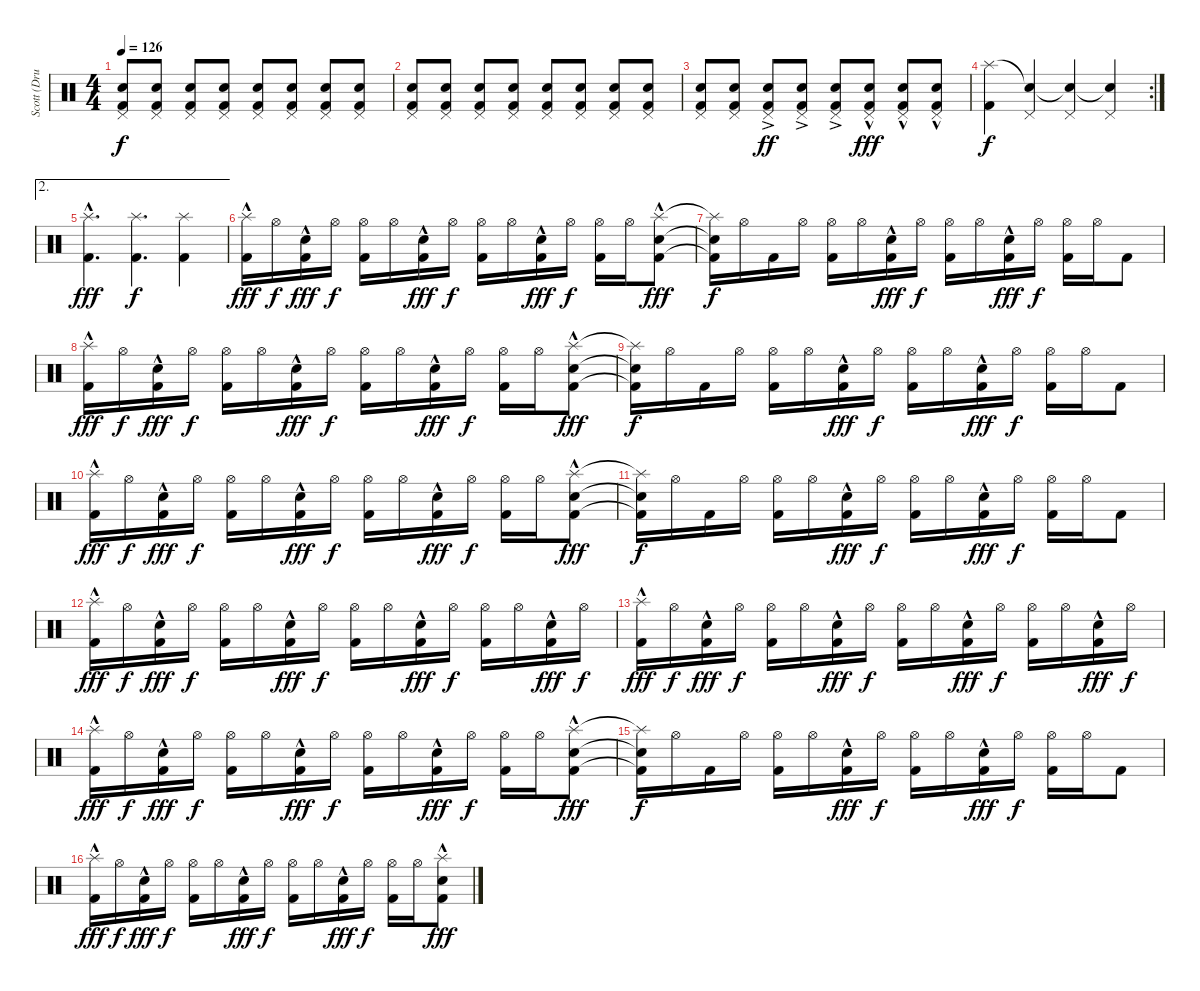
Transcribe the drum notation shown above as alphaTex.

\track ("Scott (Drums)" "Scott (Dru") {instrument percussion}
\staff {score}
\articulation defaults
\ts (4 4)
\tempo 126
\clef neutral
\ks c
("Pedal Hi-Hat (hit)" "Electric Snare (hit)" "Kick (hit) 2").8{dy f volume 11} ("Pedal Hi-Hat (hit)" "Electric Snare (hit)" "Kick (hit) 2").8 ("Pedal Hi-Hat (hit)" "Electric Snare (hit)" "Kick (hit) 2").8{volume 12} ("Pedal Hi-Hat (hit)" "Electric Snare (hit)" "Kick (hit) 2").8 ("Pedal Hi-Hat (hit)" "Electric Snare (hit)" "Kick (hit) 2").8{volume 13} ("Pedal Hi-Hat (hit)" "Electric Snare (hit)" "Kick (hit) 2").8 ("Pedal Hi-Hat (hit)" "Electric Snare (hit)" "Kick (hit) 2").8 ("Pedal Hi-Hat (hit)" "Electric Snare (hit)" "Kick (hit) 2").8 |
("Pedal Hi-Hat (hit)" "Electric Snare (hit)" "Kick (hit) 2").8{volume 14} ("Pedal Hi-Hat (hit)" "Electric Snare (hit)" "Kick (hit) 2").8 ("Pedal Hi-Hat (hit)" "Electric Snare (hit)" "Kick (hit) 2").8 ("Pedal Hi-Hat (hit)" "Electric Snare (hit)" "Kick (hit) 2").8 ("Pedal Hi-Hat (hit)" "Electric Snare (hit)" "Kick (hit) 2").8{volume 15} ("Pedal Hi-Hat (hit)" "Electric Snare (hit)" "Kick (hit) 2").8 ("Pedal Hi-Hat (hit)" "Electric Snare (hit)" "Kick (hit) 2").8 ("Pedal Hi-Hat (hit)" "Electric Snare (hit)" "Kick (hit) 2").8 |
("Pedal Hi-Hat (hit)" "Electric Snare (hit)" "Kick (hit) 2").8{volume 16} ("Pedal Hi-Hat (hit)" "Electric Snare (hit)" "Kick (hit) 2").8 ("Pedal Hi-Hat (hit)"{ac} "Electric Snare (hit)"{ac} "Kick (hit) 2"{ac}).8{dy ff} ("Pedal Hi-Hat (hit)"{ac} "Electric Snare (hit)"{ac} "Kick (hit) 2"{ac}).8 ("Pedal Hi-Hat (hit)"{ac} "Electric Snare (hit)"{ac} "Kick (hit) 2"{ac}).8 ("Pedal Hi-Hat (hit)"{hac} "Electric Snare (hit)"{hac} "Kick (hit) 2"{hac}).8{dy fff} ("Pedal Hi-Hat (hit)"{hac} "Electric Snare (hit)"{hac} "Kick (hit) 2"{hac}).8 ("Pedal Hi-Hat (hit)"{hac} "Electric Snare (hit)"{hac} "Kick (hit) 2"{hac}).8 |
\rc 2
("Splash (hit)" "Kick (hit) 2").4{dy f} ("Snare (hit)"{t} "Pedal Hi-Hat (hit)").4 ("Snare (hit)"{t} "Pedal Hi-Hat (hit)").4 ("Snare (hit)"{t} "Pedal Hi-Hat (hit)").4 |
\ae 2
("Splash (hit)"{hac} "Kick (hit) 2").4{d dy fff} ("Splash (hit)" "Kick (hit) 2").4{d dy f} ("Splash (hit)" "Kick (hit) 2").4 |
("Splash (hit)"{hac} "Kick (hit) 2").16{dy fff} "Hi-Hat (open)".16{dy f} ("Electric Snare (hit)"{hac} "Kick (hit) 2").16{dy fff} "Hi-Hat (open)".16{dy f} ("Hi-Hat (open)" "Kick (hit) 2").16 "Hi-Hat (open)".16 ("Electric Snare (hit)"{hac} "Kick (hit) 2").16{dy fff} "Hi-Hat (open)".16{dy f} ("Hi-Hat (open)" "Kick (hit) 2").16 "Hi-Hat (open)".16 ("Electric Snare (hit)"{hac} "Kick (hit) 2").16{dy fff} "Hi-Hat (open)".16{dy f} ("Hi-Hat (open)" "Kick (hit) 2").16 "Hi-Hat (open)".16 ("Splash (hit)"{hac} "Electric Snare (hit)"{hac} "Kick (hit) 2").8{dy fff} |
("Splash (hit)"{t} "Snare (hit)"{t} "Kick (hit) 2"{t}).16{dy f} "Hi-Hat (open)".16 "Kick (hit) 2".16 "Hi-Hat (open)".16 ("Hi-Hat (open)" "Kick (hit) 2").16 "Hi-Hat (open)".16 ("Electric Snare (hit)"{hac} "Kick (hit) 2").16{dy fff} "Hi-Hat (open)".16{dy f} ("Hi-Hat (open)" "Kick (hit) 2").16 "Hi-Hat (open)".16 ("Electric Snare (hit)"{hac} "Kick (hit) 2").16{dy fff} "Hi-Hat (open)".16{dy f} ("Hi-Hat (open)" "Kick (hit) 2").16 "Hi-Hat (open)".16 "Kick (hit) 2".8 |
("Splash (hit)"{hac} "Kick (hit) 2").16{dy fff} "Hi-Hat (open)".16{dy f} ("Electric Snare (hit)"{hac} "Kick (hit) 2").16{dy fff} "Hi-Hat (open)".16{dy f} ("Hi-Hat (open)" "Kick (hit) 2").16 "Hi-Hat (open)".16 ("Electric Snare (hit)"{hac} "Kick (hit) 2").16{dy fff} "Hi-Hat (open)".16{dy f} ("Hi-Hat (open)" "Kick (hit) 2").16 "Hi-Hat (open)".16 ("Electric Snare (hit)"{hac} "Kick (hit) 2").16{dy fff} "Hi-Hat (open)".16{dy f} ("Hi-Hat (open)" "Kick (hit) 2").16 "Hi-Hat (open)".16 ("Splash (hit)"{hac} "Electric Snare (hit)"{hac} "Kick (hit) 2").8{dy fff} |
("Splash (hit)"{t} "Snare (hit)"{t} "Kick (hit) 2"{t}).16{dy f} "Hi-Hat (open)".16 "Kick (hit) 2".16 "Hi-Hat (open)".16 ("Hi-Hat (open)" "Kick (hit) 2").16 "Hi-Hat (open)".16 ("Electric Snare (hit)"{hac} "Kick (hit) 2").16{dy fff} "Hi-Hat (open)".16{dy f} ("Hi-Hat (open)" "Kick (hit) 2").16 "Hi-Hat (open)".16 ("Electric Snare (hit)"{hac} "Kick (hit) 2").16{dy fff} "Hi-Hat (open)".16{dy f} ("Hi-Hat (open)" "Kick (hit) 2").16 "Hi-Hat (open)".16 "Kick (hit) 2".8 |
("Splash (hit)"{hac} "Kick (hit) 2").16{dy fff} "Hi-Hat (open)".16{dy f} ("Electric Snare (hit)"{hac} "Kick (hit) 2").16{dy fff} "Hi-Hat (open)".16{dy f} ("Hi-Hat (open)" "Kick (hit) 2").16 "Hi-Hat (open)".16 ("Electric Snare (hit)"{hac} "Kick (hit) 2").16{dy fff} "Hi-Hat (open)".16{dy f} ("Hi-Hat (open)" "Kick (hit) 2").16 "Hi-Hat (open)".16 ("Electric Snare (hit)"{hac} "Kick (hit) 2").16{dy fff} "Hi-Hat (open)".16{dy f} ("Hi-Hat (open)" "Kick (hit) 2").16 "Hi-Hat (open)".16 ("Splash (hit)"{hac} "Electric Snare (hit)"{hac} "Kick (hit) 2").8{dy fff} |
("Splash (hit)"{t} "Snare (hit)"{t} "Kick (hit) 2"{t}).16{dy f} "Hi-Hat (open)".16 "Kick (hit) 2".16 "Hi-Hat (open)".16 ("Hi-Hat (open)" "Kick (hit) 2").16 "Hi-Hat (open)".16 ("Electric Snare (hit)"{hac} "Kick (hit) 2").16{dy fff} "Hi-Hat (open)".16{dy f} ("Hi-Hat (open)" "Kick (hit) 2").16 "Hi-Hat (open)".16 ("Electric Snare (hit)"{hac} "Kick (hit) 2").16{dy fff} "Hi-Hat (open)".16{dy f} ("Hi-Hat (open)" "Kick (hit) 2").16 "Hi-Hat (open)".16 "Kick (hit) 2".8 |
("Splash (hit)"{hac} "Kick (hit) 2").16{dy fff} "Hi-Hat (open)".16{dy f} ("Electric Snare (hit)"{hac} "Kick (hit) 2").16{dy fff} "Hi-Hat (open)".16{dy f} ("Hi-Hat (open)" "Kick (hit) 2").16 "Hi-Hat (open)".16 ("Electric Snare (hit)"{hac} "Kick (hit) 2").16{dy fff} "Hi-Hat (open)".16{dy f} ("Hi-Hat (open)" "Kick (hit) 2").16 "Hi-Hat (open)".16 ("Electric Snare (hit)"{hac} "Kick (hit) 2").16{dy fff} "Hi-Hat (open)".16{dy f} ("Hi-Hat (open)" "Kick (hit) 2").16 "Hi-Hat (open)".16 ("Electric Snare (hit)"{hac} "Kick (hit) 2").16{dy fff} "Hi-Hat (open)".16{dy f} |
("Splash (hit)"{hac} "Kick (hit) 2").16{dy fff} "Hi-Hat (open)".16{dy f} ("Electric Snare (hit)"{hac} "Kick (hit) 2").16{dy fff} "Hi-Hat (open)".16{dy f} ("Hi-Hat (open)" "Kick (hit) 2").16 "Hi-Hat (open)".16 ("Electric Snare (hit)"{hac} "Kick (hit) 2").16{dy fff} "Hi-Hat (open)".16{dy f} ("Hi-Hat (open)" "Kick (hit) 2").16 "Hi-Hat (open)".16 ("Electric Snare (hit)"{hac} "Kick (hit) 2").16{dy fff} "Hi-Hat (open)".16{dy f} ("Hi-Hat (open)" "Kick (hit) 2").16 "Hi-Hat (open)".16 ("Electric Snare (hit)"{hac} "Kick (hit) 2").16{dy fff} "Hi-Hat (open)".16{dy f} |
("Splash (hit)"{hac} "Kick (hit) 2").16{dy fff} "Hi-Hat (open)".16{dy f} ("Electric Snare (hit)"{hac} "Kick (hit) 2").16{dy fff} "Hi-Hat (open)".16{dy f} ("Hi-Hat (open)" "Kick (hit) 2").16 "Hi-Hat (open)".16 ("Electric Snare (hit)"{hac} "Kick (hit) 2").16{dy fff} "Hi-Hat (open)".16{dy f} ("Hi-Hat (open)" "Kick (hit) 2").16 "Hi-Hat (open)".16 ("Electric Snare (hit)"{hac} "Kick (hit) 2").16{dy fff} "Hi-Hat (open)".16{dy f} ("Hi-Hat (open)" "Kick (hit) 2").16 "Hi-Hat (open)".16 ("Splash (hit)"{hac} "Electric Snare (hit)"{hac} "Kick (hit) 2").8{dy fff} |
("Splash (hit)"{t} "Snare (hit)"{t} "Kick (hit) 2"{t}).16{dy f} "Hi-Hat (open)".16 "Kick (hit) 2".16 "Hi-Hat (open)".16 ("Hi-Hat (open)" "Kick (hit) 2").16 "Hi-Hat (open)".16 ("Electric Snare (hit)"{hac} "Kick (hit) 2").16{dy fff} "Hi-Hat (open)".16{dy f} ("Hi-Hat (open)" "Kick (hit) 2").16 "Hi-Hat (open)".16 ("Electric Snare (hit)"{hac} "Kick (hit) 2").16{dy fff} "Hi-Hat (open)".16{dy f} ("Hi-Hat (open)" "Kick (hit) 2").16 "Hi-Hat (open)".16 "Kick (hit) 2".8 |
("Splash (hit)"{hac} "Kick (hit) 2").16{dy fff} "Hi-Hat (open)".16{dy f} ("Electric Snare (hit)"{hac} "Kick (hit) 2").16{dy fff} "Hi-Hat (open)".16{dy f} ("Hi-Hat (open)" "Kick (hit) 2").16 "Hi-Hat (open)".16 ("Electric Snare (hit)"{hac} "Kick (hit) 2").16{dy fff} "Hi-Hat (open)".16{dy f} ("Hi-Hat (open)" "Kick (hit) 2").16 "Hi-Hat (open)".16 ("Electric Snare (hit)"{hac} "Kick (hit) 2").16{dy fff} "Hi-Hat (open)".16{dy f} ("Hi-Hat (open)" "Kick (hit) 2").16 "Hi-Hat (open)".16 ("Splash (hit)"{hac} "Electric Snare (hit)"{hac} "Kick (hit) 2").8{dy fff}
